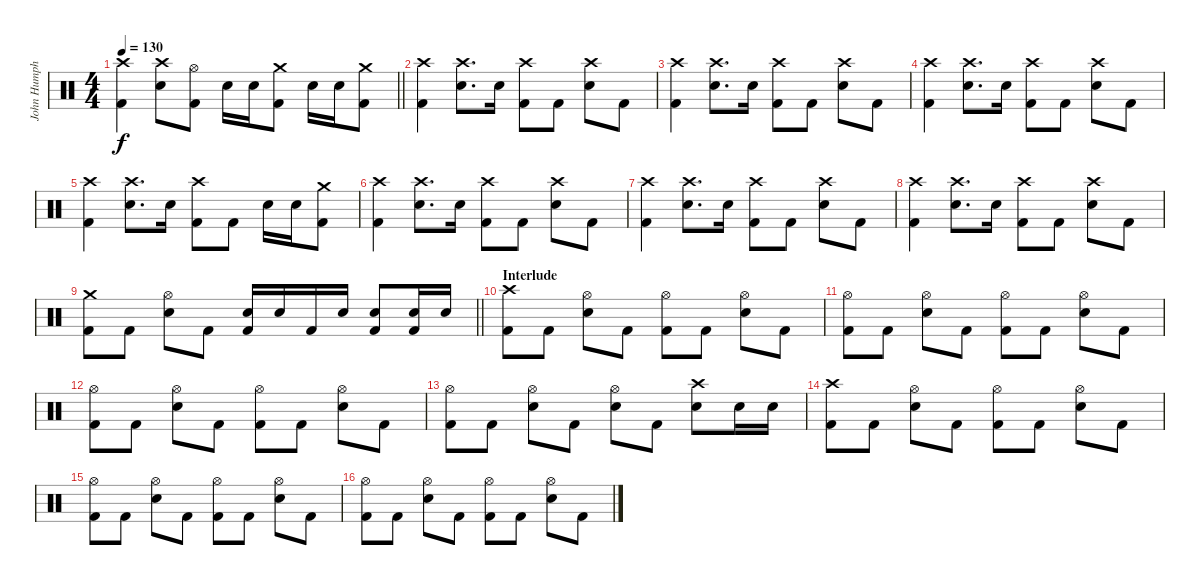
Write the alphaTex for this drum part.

\track ("John Humphrey" "John Humph") {instrument percussion}
\staff {score}
\articulation defaults
\ts (4 4)
\tempo 130
\clef neutral
\barLineRight lightlight
\ks c
("Crash high (hit)" "Kick (hit) 2").4{dy f} ("Crash high (hit)" "Electric Snare (hit)").8 ("Hi-Hat (open)" "Kick (hit) 2").8 "Electric Snare (hit)".16 "Electric Snare (hit)".16 ("Crash medium (hit)" "Kick (hit) 2").8 "Electric Snare (hit)".16 "Electric Snare (hit)".16 ("Crash medium (hit)" "Kick (hit) 2").8 |
("Crash high (hit)" "Kick (hit) 2").4 ("Crash high (hit)" "Electric Snare (hit)").8{d} "Electric Snare (hit)".16 ("Crash high (hit)" "Kick (hit) 2").8 "Kick (hit) 2".8 ("Crash high (hit)" "Electric Snare (hit)").8 "Kick (hit) 2".8 |
("Crash high (hit)" "Kick (hit) 2").4 ("Crash high (hit)" "Electric Snare (hit)").8{d} "Electric Snare (hit)".16 ("Crash high (hit)" "Kick (hit) 2").8 "Kick (hit) 2".8 ("Crash high (hit)" "Electric Snare (hit)").8 "Kick (hit) 2".8 |
("Crash high (hit)" "Kick (hit) 2").4 ("Crash high (hit)" "Electric Snare (hit)").8{d} "Electric Snare (hit)".16 ("Crash high (hit)" "Kick (hit) 2").8 "Kick (hit) 2".8 ("Crash high (hit)" "Electric Snare (hit)").8 "Kick (hit) 2".8 |
("Crash high (hit)" "Kick (hit) 2").4 ("Crash high (hit)" "Electric Snare (hit)").8{d} "Electric Snare (hit)".16 ("Crash high (hit)" "Kick (hit) 2").8 "Kick (hit) 2".8 "Electric Snare (hit)".16 "Electric Snare (hit)".16 ("Crash medium (hit)" "Kick (hit) 2").8 |
("Crash high (hit)" "Kick (hit) 2").4 ("Crash high (hit)" "Electric Snare (hit)").8{d} "Electric Snare (hit)".16 ("Crash high (hit)" "Kick (hit) 2").8 "Kick (hit) 2".8 ("Crash high (hit)" "Electric Snare (hit)").8 "Kick (hit) 2".8 |
("Crash high (hit)" "Kick (hit) 2").4 ("Crash high (hit)" "Electric Snare (hit)").8{d} "Electric Snare (hit)".16 ("Crash high (hit)" "Kick (hit) 2").8 "Kick (hit) 2".8 ("Crash high (hit)" "Electric Snare (hit)").8 "Kick (hit) 2".8 |
("Crash high (hit)" "Kick (hit) 2").4 ("Crash high (hit)" "Electric Snare (hit)").8{d} "Electric Snare (hit)".16 ("Crash high (hit)" "Kick (hit) 2").8 "Kick (hit) 2".8 ("Crash high (hit)" "Electric Snare (hit)").8 "Kick (hit) 2".8 |
\barLineRight lightlight
("Crash medium (hit)" "Kick (hit) 2").8 "Kick (hit) 2".8 ("Hi-Hat (open)" "Electric Snare (hit)").8 "Kick (hit) 2".8 ("Electric Snare (hit)" "Kick (hit) 2").16 "Electric Snare (hit)".16 "Kick (hit) 2".16 "Electric Snare (hit)".16 ("Electric Snare (hit)" "Kick (hit) 2").8 ("Electric Snare (hit)" "Kick (hit) 2").16 "Electric Snare (hit)".16 |
\section ("" "Interlude")
("Crash high (hit)" "Kick (hit) 2").8 "Kick (hit) 2".8 ("Hi-Hat (open)" "Electric Snare (hit)").8 "Kick (hit) 2".8 ("Hi-Hat (open)" "Kick (hit) 2").8 "Kick (hit) 2".8 ("Hi-Hat (open)" "Electric Snare (hit)").8 "Kick (hit) 2".8 |
("Hi-Hat (open)" "Kick (hit) 2").8 "Kick (hit) 2".8 ("Hi-Hat (open)" "Electric Snare (hit)").8 "Kick (hit) 2".8 ("Hi-Hat (open)" "Kick (hit) 2").8 "Kick (hit) 2".8 ("Hi-Hat (open)" "Electric Snare (hit)").8 "Kick (hit) 2".8 |
("Hi-Hat (open)" "Kick (hit) 2").8 "Kick (hit) 2".8 ("Hi-Hat (open)" "Electric Snare (hit)").8 "Kick (hit) 2".8 ("Hi-Hat (open)" "Kick (hit) 2").8 "Kick (hit) 2".8 ("Hi-Hat (open)" "Electric Snare (hit)").8 "Kick (hit) 2".8 |
("Hi-Hat (open)" "Kick (hit) 2").8 "Kick (hit) 2".8 ("Hi-Hat (open)" "Electric Snare (hit)").8 "Kick (hit) 2".8 ("Hi-Hat (open)" "Electric Snare (hit)").8 "Kick (hit) 2".8 ("Crash high (hit)" "Electric Snare (hit)").8 "Electric Snare (hit)".16 "Electric Snare (hit)".16 |
("Crash high (hit)" "Kick (hit) 2").8 "Kick (hit) 2".8 ("Hi-Hat (open)" "Electric Snare (hit)").8 "Kick (hit) 2".8 ("Hi-Hat (open)" "Kick (hit) 2").8 "Kick (hit) 2".8 ("Hi-Hat (open)" "Electric Snare (hit)").8 "Kick (hit) 2".8 |
("Hi-Hat (open)" "Kick (hit) 2").8 "Kick (hit) 2".8 ("Hi-Hat (open)" "Electric Snare (hit)").8 "Kick (hit) 2".8 ("Hi-Hat (open)" "Kick (hit) 2").8 "Kick (hit) 2".8 ("Hi-Hat (open)" "Electric Snare (hit)").8 "Kick (hit) 2".8 |
("Hi-Hat (open)" "Kick (hit) 2").8 "Kick (hit) 2".8 ("Hi-Hat (open)" "Electric Snare (hit)").8 "Kick (hit) 2".8 ("Hi-Hat (open)" "Kick (hit) 2").8 "Kick (hit) 2".8 ("Hi-Hat (open)" "Electric Snare (hit)").8 "Kick (hit) 2".8
